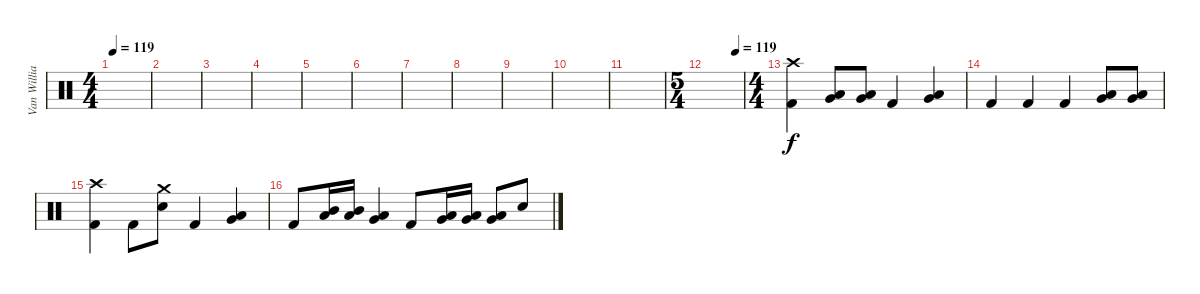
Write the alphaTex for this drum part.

\track ("Van Williams" "Van Willia") {instrument percussion}
\staff {score}
\articulation defaults
\ts (4 4)
\tempo 119
\clef neutral
\ks c
|
|
|
|
|
|
|
|
|
|
|
\ts (5 4)
\tempo (119 0.8)
|
\ts (4 4)
("Crash high (hit)" "Kick (hit) 2").4 ("Low Tom (hit)" "Very Low Tom (hit)").8 ("Very Low Tom (hit)" "Low Floor Tom (hit)").8 "Kick (hit) 2".4 ("Very Low Tom (hit)" "Low Floor Tom (hit)").4 |
"Kick (hit) 2".4 "Kick (hit) 2".4 "Kick (hit) 2".4 ("Very Low Tom (hit)" "Low Floor Tom (hit)").8 ("Very Low Tom (hit)" "Low Floor Tom (hit)").8 |
("Crash high (hit)" "Kick (hit) 2").4 "Kick (hit) 2".8 ("Crash medium (hit)" "Electric Snare (hit)").8 "Kick (hit) 2".4 ("Very Low Tom (hit)" "Low Floor Tom (hit)").4 |
"Kick (hit) 2".8 ("Mid Tom (hit)" "Low Tom (hit)").16 ("Mid Tom (hit)" "Low Tom (hit)").16 ("Low Tom (hit)" "Very Low Tom (hit)").4 "Kick (hit) 2".8 ("Low Tom (hit)" "Very Low Tom (hit)").16 ("Low Tom (hit)" "Very Low Tom (hit)").16 ("Very Low Tom (hit)" "Low Floor Tom (hit)").8 "Electric Snare (hit)".8
